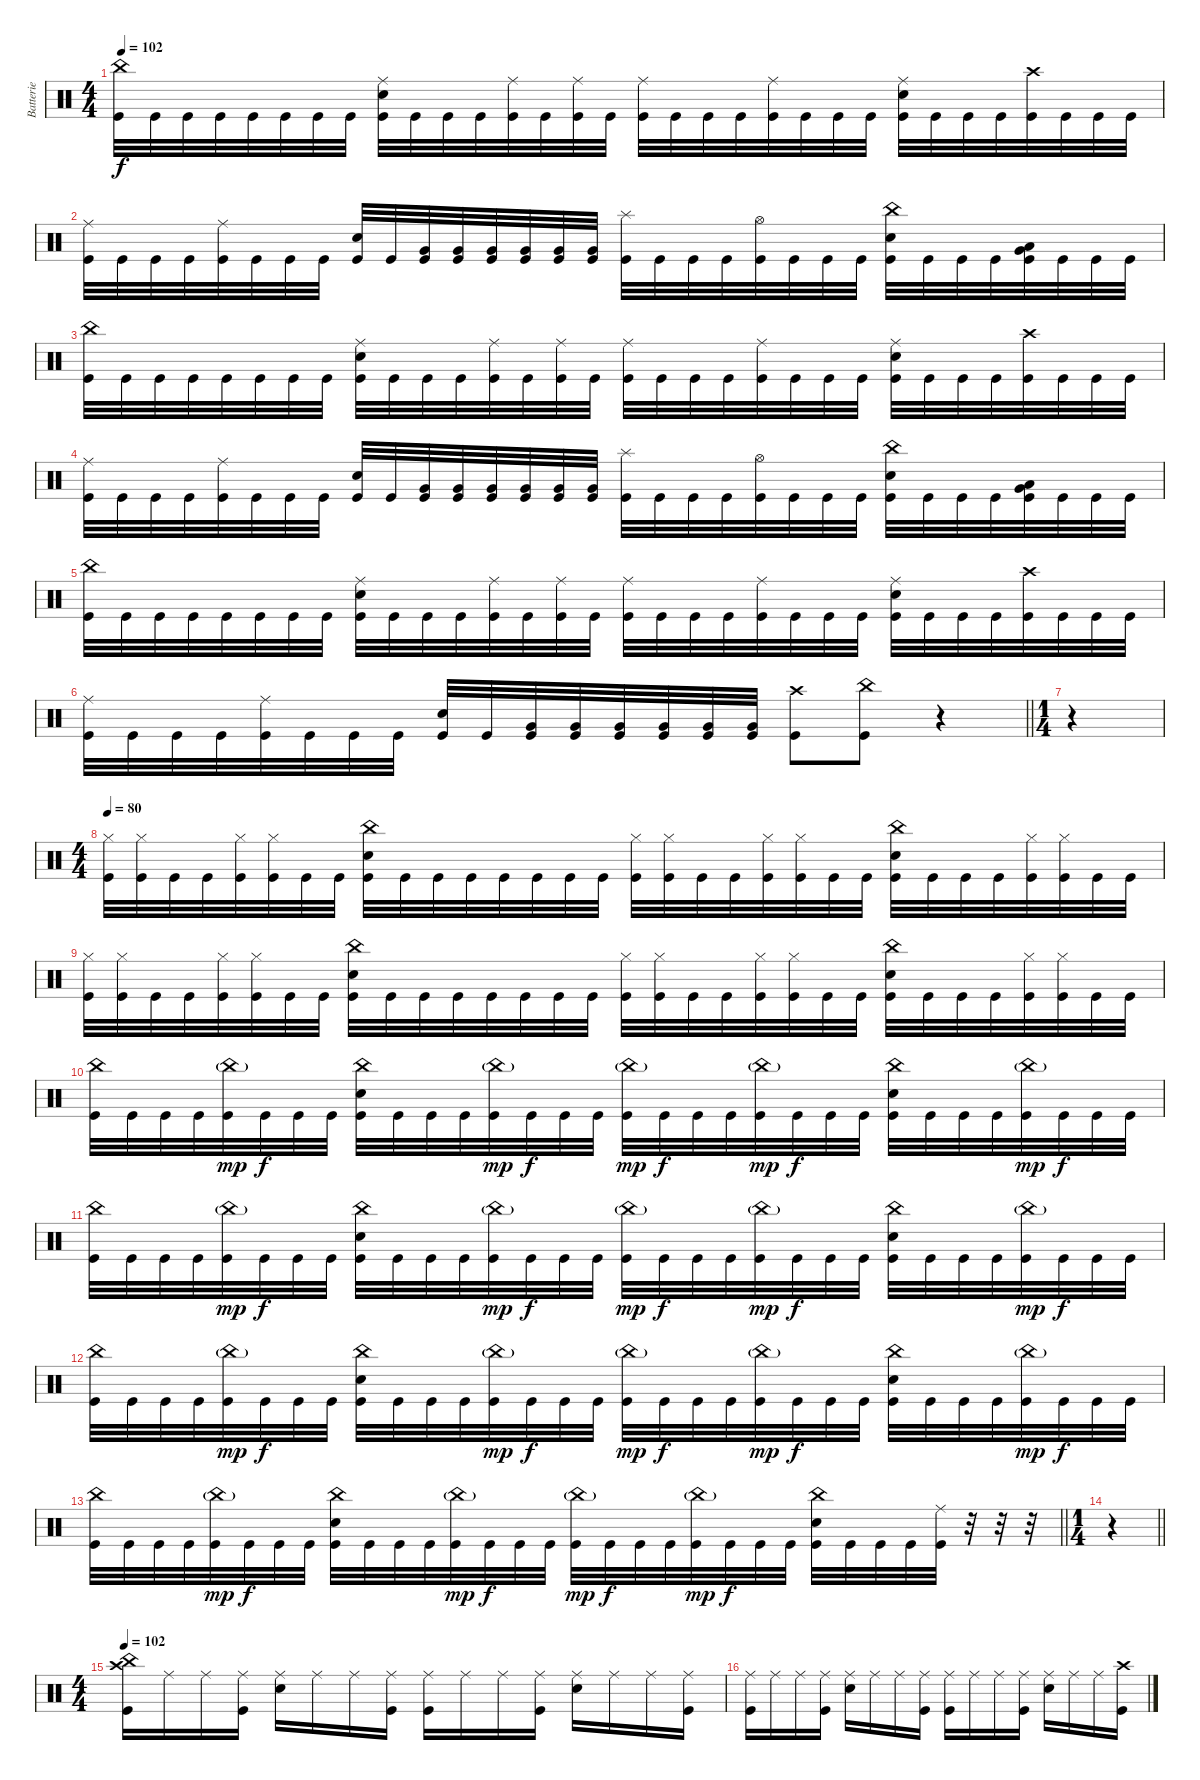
\track ("Batterie" "Batterie") {instrument percussion}
\staff {score}
\articulation defaults
\ts (4 4)
\tempo 102
\clef neutral
\ks c
("China (hit)" "Kick (hit)").32{dy f} "Kick (hit)".32 "Kick (hit)".32 "Kick (hit)".32 "Kick (hit)".32 "Kick (hit)".32 "Kick (hit)".32 "Kick (hit)".32 ("Ride (middle)" "Electric Snare (hit)" "Kick (hit)").32 "Kick (hit)".32 "Kick (hit)".32 "Kick (hit)".32 ("Ride (middle)" "Kick (hit)").32 "Kick (hit)".32 ("Ride (middle)" "Kick (hit)").32 "Kick (hit)".32 ("Ride (middle)" "Kick (hit)").32 "Kick (hit)".32 "Kick (hit)".32 "Kick (hit)".32 ("Ride (middle)" "Kick (hit)").32 "Kick (hit)".32 "Kick (hit)".32 "Kick (hit)".32 ("Ride (middle)" "Electric Snare (hit)" "Kick (hit)").32 "Kick (hit)".32 "Kick (hit)".32 "Kick (hit)".32 ("Crash high (hit)" "Kick (hit)").32 "Kick (hit)".32 "Kick (hit)".32 "Kick (hit)".32 |
("Ride (middle)" "Kick (hit)").32 "Kick (hit)".32 "Kick (hit)".32 "Kick (hit)".32 ("Ride (middle)" "Kick (hit)").32 "Kick (hit)".32 "Kick (hit)".32 "Kick (hit)".32 ("Electric Snare (hit)" "Kick (hit)").32 "Kick (hit)".32 ("Very Low Tom (hit)" "Kick (hit)").32 ("Very Low Tom (hit)" "Kick (hit)").32 ("Very Low Tom (hit)" "Kick (hit)").32 ("Very Low Tom (hit)" "Kick (hit)").32 ("Very Low Tom (hit)" "Kick (hit)").32 ("Very Low Tom (hit)" "Kick (hit)").32 ("Splash (hit)" "Kick (hit)").32 "Kick (hit)".32 "Kick (hit)".32 "Kick (hit)".32 ("Hi-Hat (open)" "Kick (hit)").32 "Kick (hit)".32 "Kick (hit)".32 "Kick (hit)".32 ("China (hit)" "Electric Snare (hit)" "Kick (hit)").32 "Kick (hit)".32 "Kick (hit)".32 "Kick (hit)".32 ("Very Low Tom (hit)" "Low Floor Tom (hit)" "Kick (hit)").32 "Kick (hit)".32 "Kick (hit)".32 "Kick (hit)".32 |
("China (hit)" "Kick (hit)").32 "Kick (hit)".32 "Kick (hit)".32 "Kick (hit)".32 "Kick (hit)".32 "Kick (hit)".32 "Kick (hit)".32 "Kick (hit)".32 ("Ride (middle)" "Electric Snare (hit)" "Kick (hit)").32 "Kick (hit)".32 "Kick (hit)".32 "Kick (hit)".32 ("Ride (middle)" "Kick (hit)").32 "Kick (hit)".32 ("Ride (middle)" "Kick (hit)").32 "Kick (hit)".32 ("Ride (middle)" "Kick (hit)").32 "Kick (hit)".32 "Kick (hit)".32 "Kick (hit)".32 ("Ride (middle)" "Kick (hit)").32 "Kick (hit)".32 "Kick (hit)".32 "Kick (hit)".32 ("Ride (middle)" "Electric Snare (hit)" "Kick (hit)").32 "Kick (hit)".32 "Kick (hit)".32 "Kick (hit)".32 ("Crash high (hit)" "Kick (hit)").32 "Kick (hit)".32 "Kick (hit)".32 "Kick (hit)".32 |
("Ride (middle)" "Kick (hit)").32 "Kick (hit)".32 "Kick (hit)".32 "Kick (hit)".32 ("Ride (middle)" "Kick (hit)").32 "Kick (hit)".32 "Kick (hit)".32 "Kick (hit)".32 ("Electric Snare (hit)" "Kick (hit)").32 "Kick (hit)".32 ("Very Low Tom (hit)" "Kick (hit)").32 ("Very Low Tom (hit)" "Kick (hit)").32 ("Very Low Tom (hit)" "Kick (hit)").32 ("Very Low Tom (hit)" "Kick (hit)").32 ("Very Low Tom (hit)" "Kick (hit)").32 ("Very Low Tom (hit)" "Kick (hit)").32 ("Splash (hit)" "Kick (hit)").32 "Kick (hit)".32 "Kick (hit)".32 "Kick (hit)".32 ("Hi-Hat (open)" "Kick (hit)").32 "Kick (hit)".32 "Kick (hit)".32 "Kick (hit)".32 ("China (hit)" "Electric Snare (hit)" "Kick (hit)").32 "Kick (hit)".32 "Kick (hit)".32 "Kick (hit)".32 ("Very Low Tom (hit)" "Low Floor Tom (hit)" "Kick (hit)").32 "Kick (hit)".32 "Kick (hit)".32 "Kick (hit)".32 |
("China (hit)" "Kick (hit)").32 "Kick (hit)".32 "Kick (hit)".32 "Kick (hit)".32 "Kick (hit)".32 "Kick (hit)".32 "Kick (hit)".32 "Kick (hit)".32 ("Ride (middle)" "Electric Snare (hit)" "Kick (hit)").32 "Kick (hit)".32 "Kick (hit)".32 "Kick (hit)".32 ("Ride (middle)" "Kick (hit)").32 "Kick (hit)".32 ("Ride (middle)" "Kick (hit)").32 "Kick (hit)".32 ("Ride (middle)" "Kick (hit)").32 "Kick (hit)".32 "Kick (hit)".32 "Kick (hit)".32 ("Ride (middle)" "Kick (hit)").32 "Kick (hit)".32 "Kick (hit)".32 "Kick (hit)".32 ("Ride (middle)" "Electric Snare (hit)" "Kick (hit)").32 "Kick (hit)".32 "Kick (hit)".32 "Kick (hit)".32 ("Crash high (hit)" "Kick (hit)").32 "Kick (hit)".32 "Kick (hit)".32 "Kick (hit)".32 |
\barLineRight lightlight
("Ride (middle)" "Kick (hit)").32 "Kick (hit)".32 "Kick (hit)".32 "Kick (hit)".32 ("Ride (middle)" "Kick (hit)").32 "Kick (hit)".32 "Kick (hit)".32 "Kick (hit)".32 ("Electric Snare (hit)" "Kick (hit)").32 "Kick (hit)".32 ("Very Low Tom (hit)" "Kick (hit)").32 ("Very Low Tom (hit)" "Kick (hit)").32 ("Very Low Tom (hit)" "Kick (hit)").32 ("Very Low Tom (hit)" "Kick (hit)").32 ("Very Low Tom (hit)" "Kick (hit)").32 ("Very Low Tom (hit)" "Kick (hit)").32 ("Crash high (hit)" "Kick (hit)").8 ("China (hit)" "Kick (hit)").8 r.4 |
\ts (1 4)
r.4 |
\ts (4 4)
\tempo 80
("Hi-Hat (closed)" "Kick (hit)").32 ("Hi-Hat (closed)" "Kick (hit)").32 "Kick (hit)".32 "Kick (hit)".32 ("Hi-Hat (closed)" "Kick (hit)").32 ("Hi-Hat (closed)" "Kick (hit)").32 "Kick (hit)".32 "Kick (hit)".32 ("China (hit)" "Electric Snare (hit)" "Kick (hit)").32 "Kick (hit)".32 "Kick (hit)".32 "Kick (hit)".32 "Kick (hit)".32 "Kick (hit)".32 "Kick (hit)".32 "Kick (hit)".32 ("Hi-Hat (closed)" "Kick (hit)").32 ("Hi-Hat (closed)" "Kick (hit)").32 "Kick (hit)".32 "Kick (hit)".32 ("Hi-Hat (closed)" "Kick (hit)").32 ("Hi-Hat (closed)" "Kick (hit)").32 "Kick (hit)".32 "Kick (hit)".32 ("China (hit)" "Electric Snare (hit)" "Kick (hit)").32 "Kick (hit)".32 "Kick (hit)".32 "Kick (hit)".32 ("Hi-Hat (closed)" "Kick (hit)").32 ("Hi-Hat (closed)" "Kick (hit)").32 "Kick (hit)".32 "Kick (hit)".32 |
("Hi-Hat (closed)" "Kick (hit)").32 ("Hi-Hat (closed)" "Kick (hit)").32 "Kick (hit)".32 "Kick (hit)".32 ("Hi-Hat (closed)" "Kick (hit)").32 ("Hi-Hat (closed)" "Kick (hit)").32 "Kick (hit)".32 "Kick (hit)".32 ("China (hit)" "Electric Snare (hit)" "Kick (hit)").32 "Kick (hit)".32 "Kick (hit)".32 "Kick (hit)".32 "Kick (hit)".32 "Kick (hit)".32 "Kick (hit)".32 "Kick (hit)".32 ("Hi-Hat (closed)" "Kick (hit)").32 ("Hi-Hat (closed)" "Kick (hit)").32 "Kick (hit)".32 "Kick (hit)".32 ("Hi-Hat (closed)" "Kick (hit)").32 ("Hi-Hat (closed)" "Kick (hit)").32 "Kick (hit)".32 "Kick (hit)".32 ("China (hit)" "Electric Snare (hit)" "Kick (hit)").32 "Kick (hit)".32 "Kick (hit)".32 "Kick (hit)".32 ("Hi-Hat (closed)" "Kick (hit)").32 ("Hi-Hat (closed)" "Kick (hit)").32 "Kick (hit)".32 "Kick (hit)".32 |
("China (hit)" "Kick (hit)").32 "Kick (hit)".32 "Kick (hit)".32 "Kick (hit)".32 ("China (hit)"{g} "Kick (hit)").32{dy mp} "Kick (hit)".32{dy f} "Kick (hit)".32 "Kick (hit)".32 ("China (hit)" "Electric Snare (hit)" "Kick (hit)").32 "Kick (hit)".32 "Kick (hit)".32 "Kick (hit)".32 ("China (hit)"{g} "Kick (hit)").32{dy mp} "Kick (hit)".32{dy f} "Kick (hit)".32 "Kick (hit)".32 ("China (hit)"{g} "Kick (hit)").32{dy mp} "Kick (hit)".32{dy f} "Kick (hit)".32 "Kick (hit)".32 ("China (hit)"{g} "Kick (hit)").32{dy mp} "Kick (hit)".32{dy f} "Kick (hit)".32 "Kick (hit)".32 ("China (hit)" "Electric Snare (hit)" "Kick (hit)").32 "Kick (hit)".32 "Kick (hit)".32 "Kick (hit)".32 ("China (hit)"{g} "Kick (hit)").32{dy mp} "Kick (hit)".32{dy f} "Kick (hit)".32 "Kick (hit)".32 |
("China (hit)" "Kick (hit)").32 "Kick (hit)".32 "Kick (hit)".32 "Kick (hit)".32 ("China (hit)"{g} "Kick (hit)").32{dy mp} "Kick (hit)".32{dy f} "Kick (hit)".32 "Kick (hit)".32 ("China (hit)" "Electric Snare (hit)" "Kick (hit)").32 "Kick (hit)".32 "Kick (hit)".32 "Kick (hit)".32 ("China (hit)"{g} "Kick (hit)").32{dy mp} "Kick (hit)".32{dy f} "Kick (hit)".32 "Kick (hit)".32 ("China (hit)"{g} "Kick (hit)").32{dy mp} "Kick (hit)".32{dy f} "Kick (hit)".32 "Kick (hit)".32 ("China (hit)"{g} "Kick (hit)").32{dy mp} "Kick (hit)".32{dy f} "Kick (hit)".32 "Kick (hit)".32 ("China (hit)" "Electric Snare (hit)" "Kick (hit)").32 "Kick (hit)".32 "Kick (hit)".32 "Kick (hit)".32 ("China (hit)"{g} "Kick (hit)").32{dy mp} "Kick (hit)".32{dy f} "Kick (hit)".32 "Kick (hit)".32 |
("China (hit)" "Kick (hit)").32 "Kick (hit)".32 "Kick (hit)".32 "Kick (hit)".32 ("China (hit)"{g} "Kick (hit)").32{dy mp} "Kick (hit)".32{dy f} "Kick (hit)".32 "Kick (hit)".32 ("China (hit)" "Electric Snare (hit)" "Kick (hit)").32 "Kick (hit)".32 "Kick (hit)".32 "Kick (hit)".32 ("China (hit)"{g} "Kick (hit)").32{dy mp} "Kick (hit)".32{dy f} "Kick (hit)".32 "Kick (hit)".32 ("China (hit)"{g} "Kick (hit)").32{dy mp} "Kick (hit)".32{dy f} "Kick (hit)".32 "Kick (hit)".32 ("China (hit)"{g} "Kick (hit)").32{dy mp} "Kick (hit)".32{dy f} "Kick (hit)".32 "Kick (hit)".32 ("China (hit)" "Electric Snare (hit)" "Kick (hit)").32 "Kick (hit)".32 "Kick (hit)".32 "Kick (hit)".32 ("China (hit)"{g} "Kick (hit)").32{dy mp} "Kick (hit)".32{dy f} "Kick (hit)".32 "Kick (hit)".32 |
\barLineRight lightlight
("China (hit)" "Kick (hit)").32 "Kick (hit)".32 "Kick (hit)".32 "Kick (hit)".32 ("China (hit)"{g} "Kick (hit)").32{dy mp} "Kick (hit)".32{dy f} "Kick (hit)".32 "Kick (hit)".32 ("China (hit)" "Electric Snare (hit)" "Kick (hit)").32 "Kick (hit)".32 "Kick (hit)".32 "Kick (hit)".32 ("China (hit)"{g} "Kick (hit)").32{dy mp} "Kick (hit)".32{dy f} "Kick (hit)".32 "Kick (hit)".32 ("China (hit)"{g} "Kick (hit)").32{dy mp} "Kick (hit)".32{dy f} "Kick (hit)".32 "Kick (hit)".32 ("China (hit)"{g} "Kick (hit)").32{dy mp} "Kick (hit)".32{dy f} "Kick (hit)".32 "Kick (hit)".32 ("China (hit)" "Electric Snare (hit)" "Kick (hit)").32 "Kick (hit)".32 "Kick (hit)".32 "Kick (hit)".32 ("Ride (middle)" "Kick (hit)").32 r.32 r.32 r.32 |
\ts (1 4)
\barLineRight lightlight
r.4 |
\ts (4 4)
\tempo 102
("Crash high (hit)" "China (hit)" "Kick (hit)").16 "Ride (middle)".16 "Ride (middle)".16 ("Ride (middle)" "Kick (hit)").16 ("Ride (middle)" "Electric Snare (hit)").16 "Ride (middle)".16 "Ride (middle)".16 ("Ride (middle)" "Kick (hit)").16 ("Ride (middle)" "Kick (hit)").16 "Ride (middle)".16 "Ride (middle)".16 ("Ride (middle)" "Kick (hit)").16 ("Ride (middle)" "Electric Snare (hit)").16 "Ride (middle)".16 "Ride (middle)".16 ("Ride (middle)" "Kick (hit)").16 |
("Ride (middle)" "Kick (hit)").16 "Ride (middle)".16 "Ride (middle)".16 ("Ride (middle)" "Kick (hit)").16 ("Ride (middle)" "Electric Snare (hit)").16 "Ride (middle)".16 "Ride (middle)".16 ("Ride (middle)" "Kick (hit)").16 ("Ride (middle)" "Kick (hit)").16 "Ride (middle)".16 "Ride (middle)".16 ("Ride (middle)" "Kick (hit)").16 ("Ride (middle)" "Electric Snare (hit)").16 "Ride (middle)".16 "Ride (middle)".16 ("Crash high (hit)" "Kick (hit)").16
